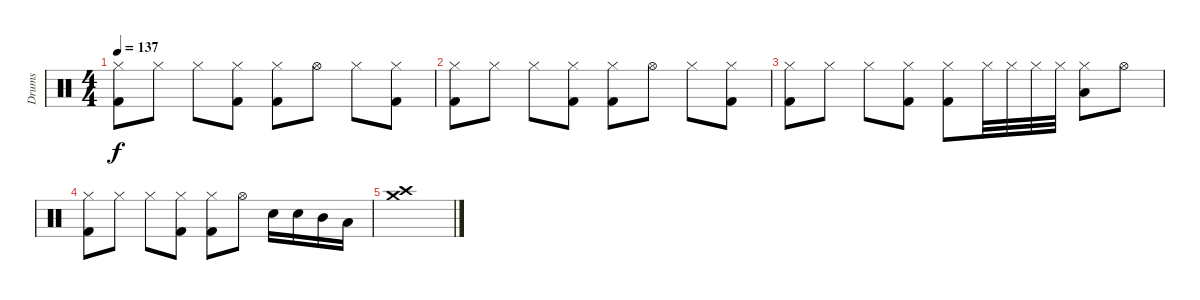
\track ("Drums" "Drums") {instrument percussion}
\staff {score}
\articulation defaults
\ts (4 4)
\tempo 137
\clef neutral
\ks c
("Hi-Hat (closed)" "Kick (hit) 2").8{dy f} "Hi-Hat (closed)".8 "Hi-Hat (closed)".8 ("Hi-Hat (closed)" "Kick (hit) 2").8 ("Hi-Hat (closed)" "Kick (hit) 2").8 "Hi-Hat (open)".8 "Hi-Hat (closed)".8 ("Hi-Hat (closed)" "Kick (hit) 2").8 |
("Hi-Hat (closed)" "Kick (hit) 2").8 "Hi-Hat (closed)".8 "Hi-Hat (closed)".8 ("Hi-Hat (closed)" "Kick (hit) 2").8 ("Hi-Hat (closed)" "Kick (hit) 2").8 "Hi-Hat (open)".8 "Hi-Hat (closed)".8 ("Hi-Hat (closed)" "Kick (hit) 2").8 |
("Hi-Hat (closed)" "Kick (hit) 2").8 "Hi-Hat (closed)".8 "Hi-Hat (closed)".8 ("Hi-Hat (closed)" "Kick (hit) 2").8 ("Hi-Hat (closed)" "Kick (hit) 2").8 "Hi-Hat (closed)".32 "Hi-Hat (closed)".32 "Hi-Hat (closed)".32 "Hi-Hat (closed)".32 ("Hi-Hat (closed)" "Low Tom (hit)").8 "Hi-Hat (open)".8 |
("Hi-Hat (closed)" "Kick (hit) 2").8 "Hi-Hat (closed)".8 "Hi-Hat (closed)".8 ("Hi-Hat (closed)" "Kick (hit) 2").8 ("Hi-Hat (closed)" "Kick (hit) 2").8 "Hi-Hat (open)".8 "Snare (hit) 2".16 "Snare (hit) 2".16 "Mid Tom (hit)".16 "Low Floor Tom (hit)".16 |
("Crash medium (hit)" "Crash high (hit)").1
